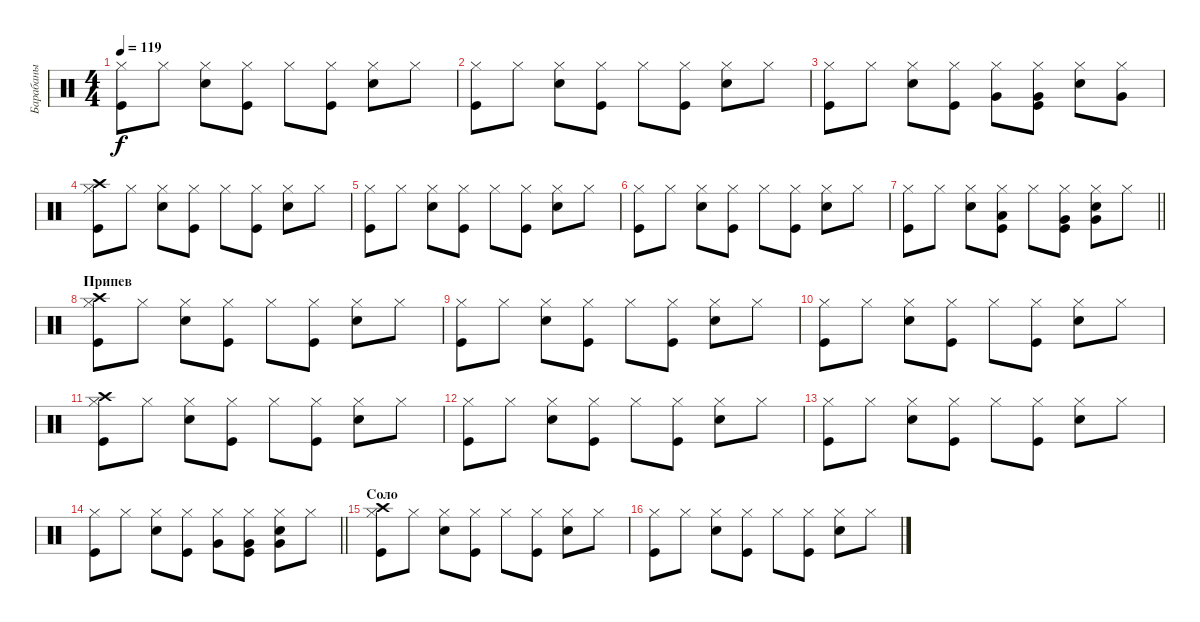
\track ("Барабаны" "Барабаны") {instrument percussion}
\staff {score}
\articulation defaults
\ts (4 4)
\tempo 119
\clef neutral
\ks c
("Kick (hit)" "Hi-Hat (closed)").8{dy f} "Hi-Hat (closed)".8 ("Snare (hit) 2" "Hi-Hat (closed)").8 ("Kick (hit)" "Hi-Hat (closed)").8 "Hi-Hat (closed)".8 ("Kick (hit)" "Hi-Hat (closed)").8 ("Snare (hit) 2" "Hi-Hat (closed)").8 "Hi-Hat (closed)".8 |
("Kick (hit)" "Hi-Hat (closed)").8 "Hi-Hat (closed)".8 ("Snare (hit) 2" "Hi-Hat (closed)").8 ("Kick (hit)" "Hi-Hat (closed)").8 "Hi-Hat (closed)".8 ("Kick (hit)" "Hi-Hat (closed)").8 ("Snare (hit) 2" "Hi-Hat (closed)").8 "Hi-Hat (closed)".8 |
("Kick (hit)" "Hi-Hat (closed)").8 "Hi-Hat (closed)".8 ("Snare (hit) 2" "Hi-Hat (closed)").8 ("Kick (hit)" "Hi-Hat (closed)").8 ("Hi-Hat (closed)" "Very Low Tom (hit)").8 ("Kick (hit)" "Hi-Hat (closed)" "Very Low Tom (hit)").8 ("Snare (hit) 2" "Hi-Hat (closed)").8 ("Hi-Hat (closed)" "Very Low Tom (hit)").8 |
("Kick (hit)" "Hi-Hat (closed)" "Crash high (hit)").8 "Hi-Hat (closed)".8 ("Snare (hit) 2" "Hi-Hat (closed)").8 ("Kick (hit)" "Hi-Hat (closed)").8 "Hi-Hat (closed)".8 ("Kick (hit)" "Hi-Hat (closed)").8 ("Snare (hit) 2" "Hi-Hat (closed)").8 "Hi-Hat (closed)".8 |
("Kick (hit)" "Hi-Hat (closed)").8 "Hi-Hat (closed)".8 ("Snare (hit) 2" "Hi-Hat (closed)").8 ("Kick (hit)" "Hi-Hat (closed)").8 "Hi-Hat (closed)".8 ("Kick (hit)" "Hi-Hat (closed)").8 ("Snare (hit) 2" "Hi-Hat (closed)").8 "Hi-Hat (closed)".8 |
("Kick (hit)" "Hi-Hat (closed)").8 "Hi-Hat (closed)".8 ("Snare (hit) 2" "Hi-Hat (closed)").8 ("Kick (hit)" "Hi-Hat (closed)").8 "Hi-Hat (closed)".8 ("Kick (hit)" "Hi-Hat (closed)").8 ("Snare (hit) 2" "Hi-Hat (closed)").8 "Hi-Hat (closed)".8 |
\barLineRight lightlight
("Kick (hit)" "Hi-Hat (closed)").8 "Hi-Hat (closed)".8 ("Snare (hit) 2" "Hi-Hat (closed)").8 ("Kick (hit)" "Hi-Hat (closed)" "Low Tom (hit)").8 "Hi-Hat (closed)".8 ("Kick (hit)" "Hi-Hat (closed)" "Very Low Tom (hit)").8 ("Snare (hit) 2" "Hi-Hat (closed)" "Very Low Tom (hit)").8 "Hi-Hat (closed)".8 |
\section ("" "Припев")
("Kick (hit)" "Hi-Hat (closed)" "Crash high (hit)").8 "Hi-Hat (closed)".8 ("Snare (hit) 2" "Hi-Hat (closed)").8 ("Kick (hit)" "Hi-Hat (closed)").8 "Hi-Hat (closed)".8 ("Kick (hit)" "Hi-Hat (closed)").8 ("Snare (hit) 2" "Hi-Hat (closed)").8 "Hi-Hat (closed)".8 |
("Kick (hit)" "Hi-Hat (closed)").8 "Hi-Hat (closed)".8 ("Snare (hit) 2" "Hi-Hat (closed)").8 ("Kick (hit)" "Hi-Hat (closed)").8 "Hi-Hat (closed)".8 ("Kick (hit)" "Hi-Hat (closed)").8 ("Snare (hit) 2" "Hi-Hat (closed)").8 "Hi-Hat (closed)".8 |
("Kick (hit)" "Hi-Hat (closed)").8 "Hi-Hat (closed)".8 ("Snare (hit) 2" "Hi-Hat (closed)").8 ("Kick (hit)" "Hi-Hat (closed)").8 "Hi-Hat (closed)".8 ("Kick (hit)" "Hi-Hat (closed)").8 ("Snare (hit) 2" "Hi-Hat (closed)").8 "Hi-Hat (closed)".8 |
("Kick (hit)" "Hi-Hat (closed)" "Crash high (hit)").8 "Hi-Hat (closed)".8 ("Snare (hit) 2" "Hi-Hat (closed)").8 ("Kick (hit)" "Hi-Hat (closed)").8 "Hi-Hat (closed)".8 ("Kick (hit)" "Hi-Hat (closed)").8 ("Snare (hit) 2" "Hi-Hat (closed)").8 "Hi-Hat (closed)".8 |
("Kick (hit)" "Hi-Hat (closed)").8 "Hi-Hat (closed)".8 ("Snare (hit) 2" "Hi-Hat (closed)").8 ("Kick (hit)" "Hi-Hat (closed)").8 "Hi-Hat (closed)".8 ("Kick (hit)" "Hi-Hat (closed)").8 ("Snare (hit) 2" "Hi-Hat (closed)").8 "Hi-Hat (closed)".8 |
("Kick (hit)" "Hi-Hat (closed)").8 "Hi-Hat (closed)".8 ("Snare (hit) 2" "Hi-Hat (closed)").8 ("Kick (hit)" "Hi-Hat (closed)").8 "Hi-Hat (closed)".8 ("Kick (hit)" "Hi-Hat (closed)").8 ("Snare (hit) 2" "Hi-Hat (closed)").8 "Hi-Hat (closed)".8 |
\barLineRight lightlight
("Kick (hit)" "Hi-Hat (closed)").8 "Hi-Hat (closed)".8 ("Snare (hit) 2" "Hi-Hat (closed)").8 ("Kick (hit)" "Hi-Hat (closed)").8 ("Hi-Hat (closed)" "Very Low Tom (hit)").8 ("Kick (hit)" "Hi-Hat (closed)" "Very Low Tom (hit)").8 ("Snare (hit) 2" "Hi-Hat (closed)" "Very Low Tom (hit)").8 "Hi-Hat (closed)".8 |
\section ("" "Соло")
("Kick (hit)" "Hi-Hat (closed)" "Crash high (hit)").8 "Hi-Hat (closed)".8 ("Snare (hit) 2" "Hi-Hat (closed)").8 ("Kick (hit)" "Hi-Hat (closed)").8 "Hi-Hat (closed)".8 ("Kick (hit)" "Hi-Hat (closed)").8 ("Snare (hit) 2" "Hi-Hat (closed)").8 "Hi-Hat (closed)".8 |
("Kick (hit)" "Hi-Hat (closed)").8 "Hi-Hat (closed)".8 ("Snare (hit) 2" "Hi-Hat (closed)").8 ("Kick (hit)" "Hi-Hat (closed)").8 "Hi-Hat (closed)".8 ("Kick (hit)" "Hi-Hat (closed)").8 ("Snare (hit) 2" "Hi-Hat (closed)").8 "Hi-Hat (closed)".8
